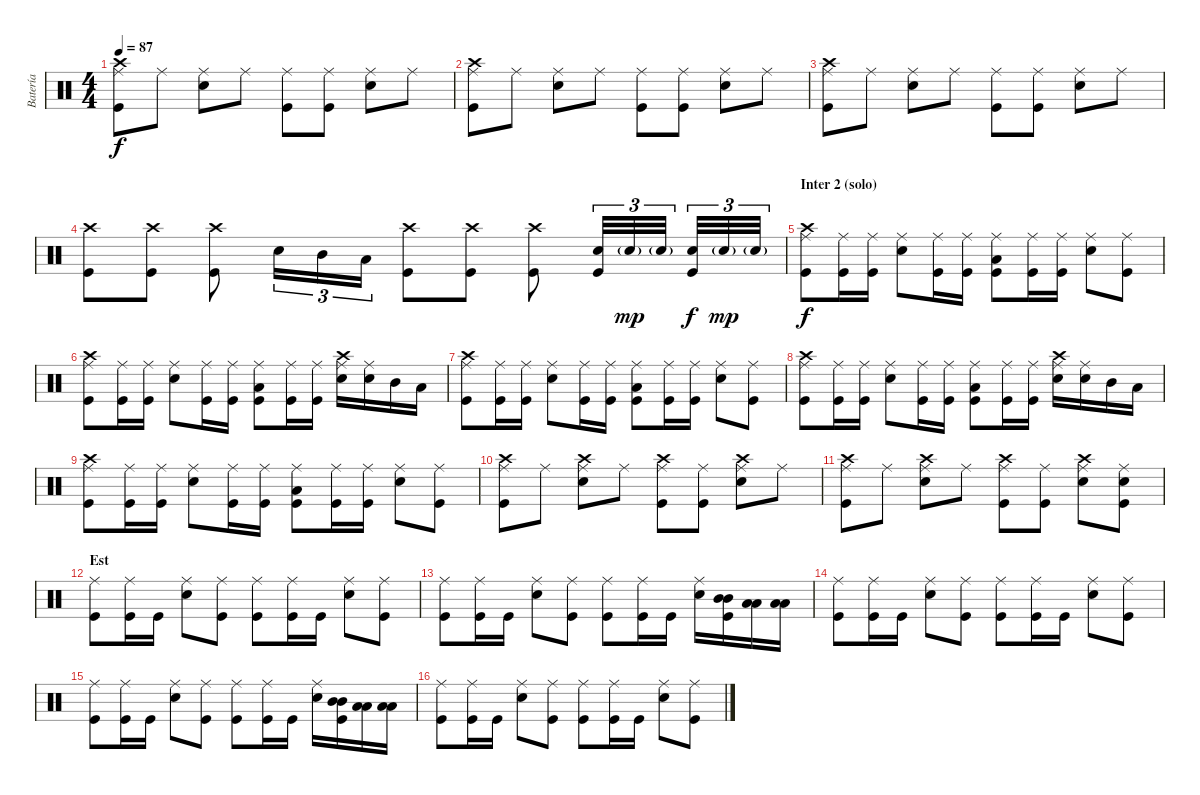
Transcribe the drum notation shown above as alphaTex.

\track ("Batería" "Batería") {instrument percussion}
\staff {score}
\articulation defaults
\ts (4 4)
\tempo 87
\clef neutral
\ks c
("Crash high (hit)" "Ride (middle)" "Kick (hit)").8{dy f} "Ride (middle)".8 ("Ride (middle)" "Snare (hit) 2").8 "Ride (middle)".8 ("Ride (middle)" "Kick (hit)").8 ("Ride (middle)" "Kick (hit)").8 ("Ride (middle)" "Snare (hit) 2").8 "Ride (middle)".8 |
("Crash high (hit)" "Ride (middle)" "Kick (hit)").8 "Ride (middle)".8 ("Ride (middle)" "Snare (hit) 2").8 "Ride (middle)".8 ("Ride (middle)" "Kick (hit)").8 ("Ride (middle)" "Kick (hit)").8 ("Ride (middle)" "Snare (hit) 2").8 "Ride (middle)".8 |
("Crash high (hit)" "Ride (middle)" "Kick (hit)").8 "Ride (middle)".8 ("Ride (middle)" "Snare (hit) 2").8 "Ride (middle)".8 ("Ride (middle)" "Kick (hit)").8 ("Ride (middle)" "Kick (hit)").8 ("Ride (middle)" "Snare (hit) 2").8 "Ride (middle)".8 |
("Crash high (hit)" "Kick (hit)").8 ("Crash high (hit)" "Kick (hit)").8 ("Crash high (hit)" "Kick (hit)").8 "Snare (hit) 2".16{tu (3 2)} "Mid Tom (hit)".16{tu (3 2)} "Low Tom (hit)".16{tu (3 2)} ("Crash high (hit)" "Kick (hit)").8 ("Crash high (hit)" "Kick (hit)").8 ("Crash high (hit)" "Kick (hit)").8 ("Snare (hit) 2" "Kick (hit)").32{tu (3 2)} "Snare (hit) 2"{g}.32{tu (3 2) dy mp} "Snare (hit) 2"{g}.32{tu (3 2)} ("Snare (hit) 2" "Kick (hit)").32{tu (3 2) dy f} "Snare (hit) 2"{g}.32{tu (3 2) dy mp} "Snare (hit) 2"{g}.32{tu (3 2)} |
\section ("" "Inter 2 (solo)")
("Crash high (hit)" "Ride (middle)" "Kick (hit)").8{dy f} ("Ride (middle)" "Kick (hit)").16 ("Ride (middle)" "Kick (hit)").16 ("Ride (middle)" "Snare (hit) 2").8 ("Ride (middle)" "Kick (hit)").16 ("Ride (middle)" "Kick (hit)").16 ("Ride (middle)" "Low Tom (hit)" "Kick (hit)").8 ("Ride (middle)" "Kick (hit)").16 ("Ride (middle)" "Kick (hit)").16 ("Ride (middle)" "Snare (hit) 2").8 ("Ride (middle)" "Kick (hit)").8 |
("Crash high (hit)" "Ride (middle)" "Kick (hit)").8 ("Ride (middle)" "Kick (hit)").16 ("Ride (middle)" "Kick (hit)").16 ("Ride (middle)" "Snare (hit) 2").8 ("Ride (middle)" "Kick (hit)").16 ("Ride (middle)" "Kick (hit)").16 ("Ride (middle)" "Low Tom (hit)" "Kick (hit)").8 ("Ride (middle)" "Kick (hit)").16 ("Ride (middle)" "Kick (hit)").16 ("Crash high (hit)" "Ride (middle)" "Snare (hit) 2").16 ("Ride (middle)" "Snare (hit) 2").16 "Mid Tom (hit)".16 "Low Tom (hit)".16 |
("Crash high (hit)" "Ride (middle)" "Kick (hit)").8 ("Ride (middle)" "Kick (hit)").16 ("Ride (middle)" "Kick (hit)").16 ("Ride (middle)" "Snare (hit) 2").8 ("Ride (middle)" "Kick (hit)").16 ("Ride (middle)" "Kick (hit)").16 ("Ride (middle)" "Low Tom (hit)" "Kick (hit)").8 ("Ride (middle)" "Kick (hit)").16 ("Ride (middle)" "Kick (hit)").16 ("Ride (middle)" "Snare (hit) 2").8 ("Ride (middle)" "Kick (hit)").8 |
("Crash high (hit)" "Ride (middle)" "Kick (hit)").8 ("Ride (middle)" "Kick (hit)").16 ("Ride (middle)" "Kick (hit)").16 ("Ride (middle)" "Snare (hit) 2").8 ("Ride (middle)" "Kick (hit)").16 ("Ride (middle)" "Kick (hit)").16 ("Ride (middle)" "Low Tom (hit)" "Kick (hit)").8 ("Ride (middle)" "Kick (hit)").16 ("Ride (middle)" "Kick (hit)").16 ("Crash high (hit)" "Ride (middle)" "Snare (hit) 2").16 ("Ride (middle)" "Snare (hit) 2").16 "Mid Tom (hit)".16 "Low Tom (hit)".16 |
("Crash high (hit)" "Ride (middle)" "Kick (hit)").8 ("Ride (middle)" "Kick (hit)").16 ("Ride (middle)" "Kick (hit)").16 ("Ride (middle)" "Snare (hit) 2").8 ("Ride (middle)" "Kick (hit)").16 ("Ride (middle)" "Kick (hit)").16 ("Ride (middle)" "Low Tom (hit)" "Kick (hit)").8 ("Ride (middle)" "Kick (hit)").16 ("Ride (middle)" "Kick (hit)").16 ("Ride (middle)" "Snare (hit) 2").8 ("Ride (middle)" "Kick (hit)").8 |
("Crash high (hit)" "Ride (middle)" "Kick (hit)").8 "Ride (middle)".8 ("Crash high (hit)" "Ride (middle)" "Snare (hit) 2").8 "Ride (middle)".8 ("Crash high (hit)" "Ride (middle)" "Kick (hit)").8 ("Ride (middle)" "Kick (hit)").8 ("Crash high (hit)" "Ride (middle)" "Snare (hit) 2").8 "Ride (middle)".8 |
("Crash high (hit)" "Ride (middle)" "Kick (hit)").8 "Ride (middle)".8 ("Crash high (hit)" "Ride (middle)" "Snare (hit) 2").8 "Ride (middle)".8 ("Crash high (hit)" "Ride (middle)" "Kick (hit)").8 ("Ride (middle)" "Kick (hit)").8 ("Crash high (hit)" "Ride (middle)" "Snare (hit) 2").8 ("Ride (middle)" "Snare (hit) 2" "Kick (hit)").8 |
\section ("" "Est")
("Ride (middle)" "Kick (hit)").8 ("Ride (middle)" "Kick (hit)").16 "Kick (hit)".16 ("Ride (middle)" "Snare (hit) 2").8 ("Ride (middle)" "Kick (hit)").8 ("Ride (middle)" "Kick (hit)").8 ("Ride (middle)" "Kick (hit)").16 "Kick (hit)".16 ("Ride (middle)" "Snare (hit) 2").8 ("Ride (middle)" "Kick (hit)").8 |
("Ride (middle)" "Kick (hit)").8 ("Ride (middle)" "Kick (hit)").16 "Kick (hit)".16 ("Ride (middle)" "Snare (hit) 2").8 ("Ride (middle)" "Kick (hit)").8 ("Ride (middle)" "Kick (hit)").8 ("Ride (middle)" "Kick (hit)").16 "Kick (hit)".16 ("Ride (middle)" "Snare (hit) 2").16 ("Mid Tom (hit)" "Mid Tom (hit)" "Kick (hit)").16 ("Low Tom (hit)" "Low Tom (hit)").16 ("Low Floor Tom (hit)" "Low Floor Tom (hit)").16 |
("Ride (middle)" "Kick (hit)").8 ("Ride (middle)" "Kick (hit)").16 "Kick (hit)".16 ("Ride (middle)" "Snare (hit) 2").8 ("Ride (middle)" "Kick (hit)").8 ("Ride (middle)" "Kick (hit)").8 ("Ride (middle)" "Kick (hit)").16 "Kick (hit)".16 ("Ride (middle)" "Snare (hit) 2").8 ("Ride (middle)" "Kick (hit)").8 |
("Ride (middle)" "Kick (hit)").8 ("Ride (middle)" "Kick (hit)").16 "Kick (hit)".16 ("Ride (middle)" "Snare (hit) 2").8 ("Ride (middle)" "Kick (hit)").8 ("Ride (middle)" "Kick (hit)").8 ("Ride (middle)" "Kick (hit)").16 "Kick (hit)".16 ("Ride (middle)" "Snare (hit) 2").16 ("Mid Tom (hit)" "Mid Tom (hit)" "Kick (hit)").16 ("Low Tom (hit)" "Low Tom (hit)").16 ("Low Floor Tom (hit)" "Low Floor Tom (hit)").16 |
("Ride (middle)" "Kick (hit)").8 ("Ride (middle)" "Kick (hit)").16 "Kick (hit)".16 ("Ride (middle)" "Snare (hit) 2").8 ("Ride (middle)" "Kick (hit)").8 ("Ride (middle)" "Kick (hit)").8 ("Ride (middle)" "Kick (hit)").16 "Kick (hit)".16 ("Ride (middle)" "Snare (hit) 2").8 ("Ride (middle)" "Kick (hit)").8
